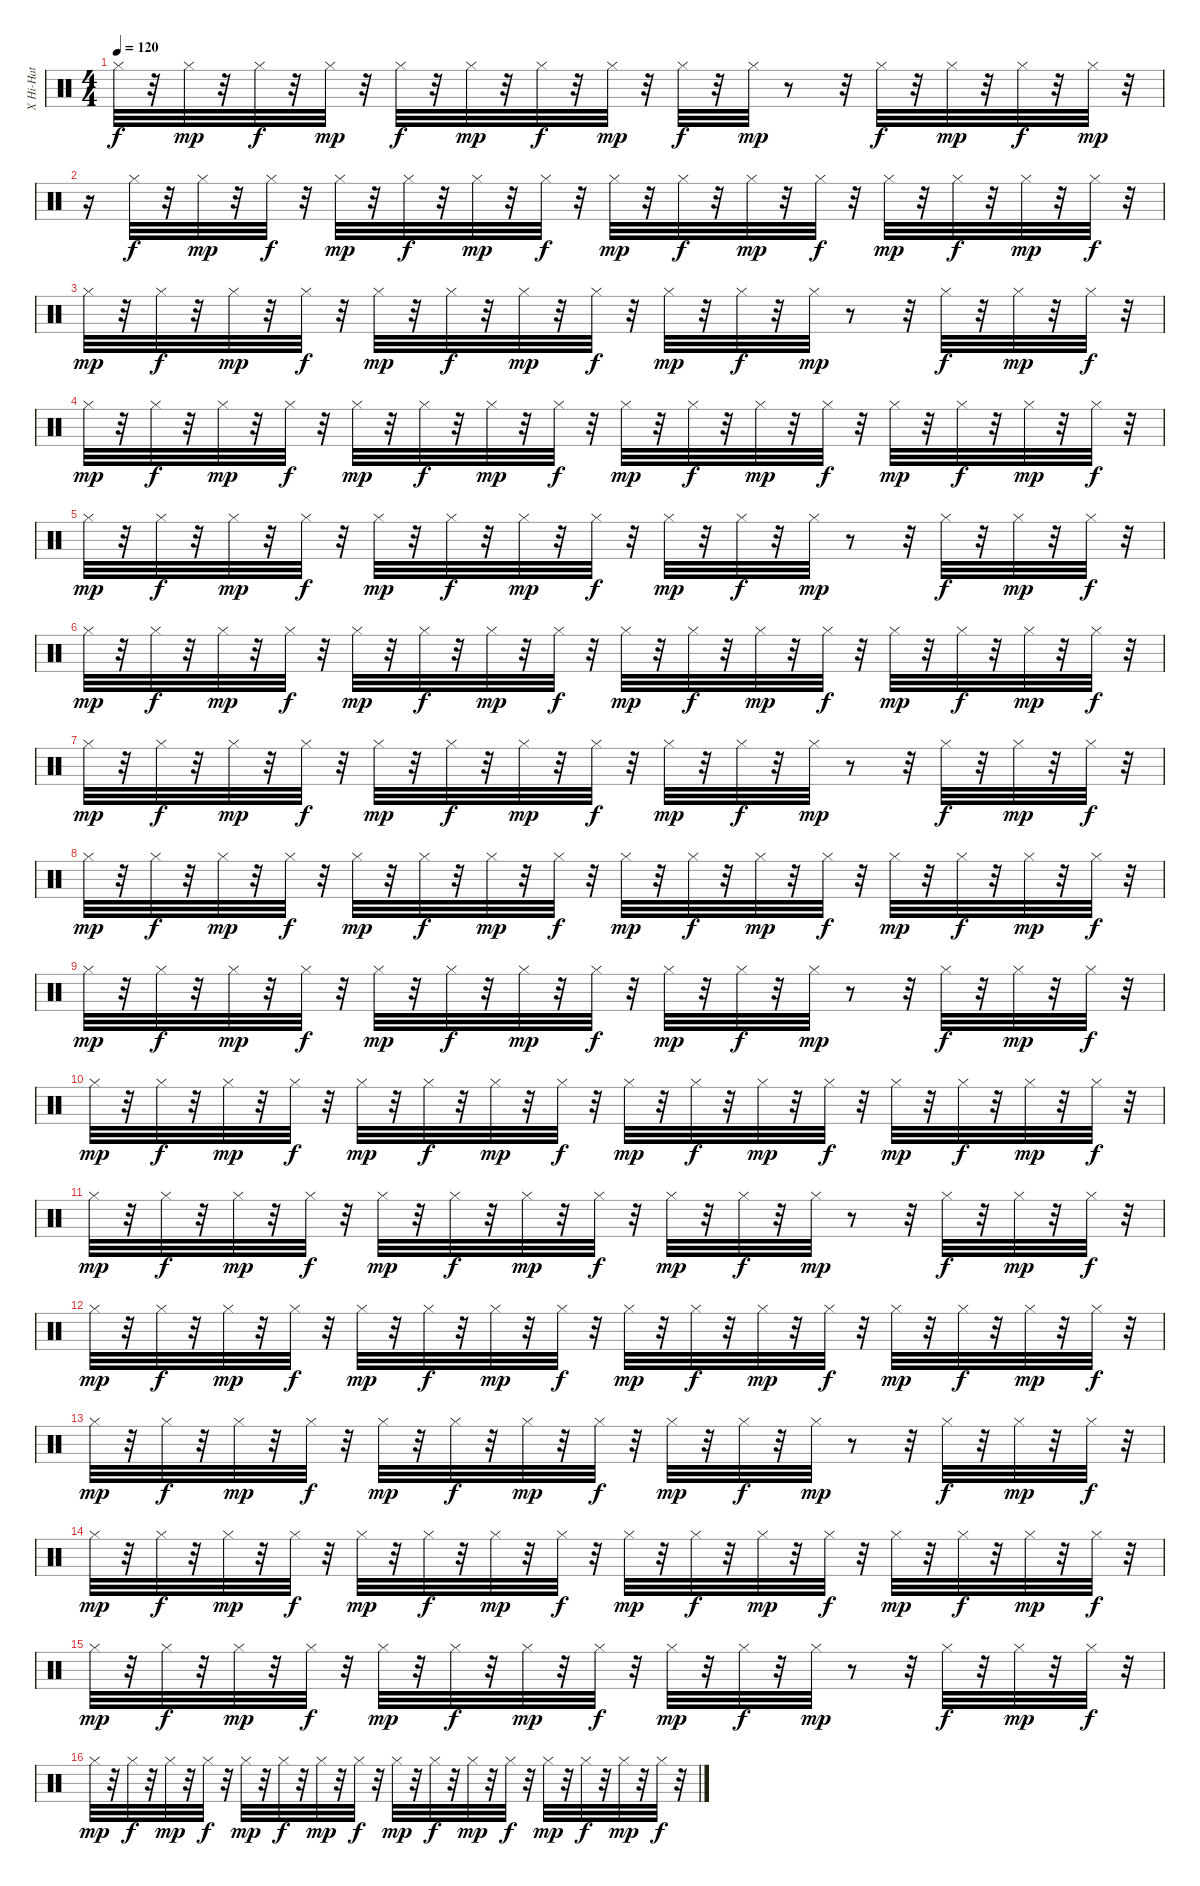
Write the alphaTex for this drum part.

\track ("X Hi-Hat            " "X Hi-Hat  ") {instrument percussion}
\staff {score}
\articulation defaults
\ts (4 4)
\tempo 120
\clef neutral
\ks c "Hi-Hat (closed)".32{dy f}
r.32 "Hi-Hat (closed)".32{dy mp} r.32 "Hi-Hat (closed)".32{dy f} r.32 "Hi-Hat (closed)".32{dy mp} r.32 "Hi-Hat (closed)".32{dy f} r.32 "Hi-Hat (closed)".32{dy mp} r.32 "Hi-Hat (closed)".32{dy f} r.32 "Hi-Hat (closed)".32{dy mp} r.32 "Hi-Hat (closed)".32{dy f} r.32 "Hi-Hat (closed)".32{dy mp} r.8 r.32 "Hi-Hat (closed)".32{dy f} r.32 "Hi-Hat (closed)".32{dy mp} r.32 "Hi-Hat (closed)".32{dy f} r.32 "Hi-Hat (closed)".32{dy mp} r.32 |
r.16 "Hi-Hat (closed)".32{dy f} r.32 "Hi-Hat (closed)".32{dy mp} r.32 "Hi-Hat (closed)".32{dy f} r.32 "Hi-Hat (closed)".32{dy mp} r.32 "Hi-Hat (closed)".32{dy f} r.32 "Hi-Hat (closed)".32{dy mp} r.32 "Hi-Hat (closed)".32{dy f} r.32 "Hi-Hat (closed)".32{dy mp} r.32 "Hi-Hat (closed)".32{dy f} r.32 "Hi-Hat (closed)".32{dy mp} r.32 "Hi-Hat (closed)".32{dy f} r.32 "Hi-Hat (closed)".32{dy mp} r.32 "Hi-Hat (closed)".32{dy f} r.32 "Hi-Hat (closed)".32{dy mp} r.32 "Hi-Hat (closed)".32{dy f} r.32 |
"Hi-Hat (closed)".32{dy mp} r.32 "Hi-Hat (closed)".32{dy f} r.32 "Hi-Hat (closed)".32{dy mp} r.32 "Hi-Hat (closed)".32{dy f} r.32 "Hi-Hat (closed)".32{dy mp} r.32 "Hi-Hat (closed)".32{dy f} r.32 "Hi-Hat (closed)".32{dy mp} r.32 "Hi-Hat (closed)".32{dy f} r.32 "Hi-Hat (closed)".32{dy mp} r.32 "Hi-Hat (closed)".32{dy f} r.32 "Hi-Hat (closed)".32{dy mp} r.8 r.32 "Hi-Hat (closed)".32{dy f} r.32 "Hi-Hat (closed)".32{dy mp} r.32 "Hi-Hat (closed)".32{dy f} r.32 |
"Hi-Hat (closed)".32{dy mp} r.32 "Hi-Hat (closed)".32{dy f} r.32 "Hi-Hat (closed)".32{dy mp} r.32 "Hi-Hat (closed)".32{dy f} r.32 "Hi-Hat (closed)".32{dy mp} r.32 "Hi-Hat (closed)".32{dy f} r.32 "Hi-Hat (closed)".32{dy mp} r.32 "Hi-Hat (closed)".32{dy f} r.32 "Hi-Hat (closed)".32{dy mp} r.32 "Hi-Hat (closed)".32{dy f} r.32 "Hi-Hat (closed)".32{dy mp} r.32 "Hi-Hat (closed)".32{dy f} r.32 "Hi-Hat (closed)".32{dy mp} r.32 "Hi-Hat (closed)".32{dy f} r.32 "Hi-Hat (closed)".32{dy mp} r.32 "Hi-Hat (closed)".32{dy f} r.32 |
"Hi-Hat (closed)".32{dy mp} r.32 "Hi-Hat (closed)".32{dy f} r.32 "Hi-Hat (closed)".32{dy mp} r.32 "Hi-Hat (closed)".32{dy f} r.32 "Hi-Hat (closed)".32{dy mp} r.32 "Hi-Hat (closed)".32{dy f} r.32 "Hi-Hat (closed)".32{dy mp} r.32 "Hi-Hat (closed)".32{dy f} r.32 "Hi-Hat (closed)".32{dy mp} r.32 "Hi-Hat (closed)".32{dy f} r.32 "Hi-Hat (closed)".32{dy mp} r.8 r.32 "Hi-Hat (closed)".32{dy f} r.32 "Hi-Hat (closed)".32{dy mp} r.32 "Hi-Hat (closed)".32{dy f} r.32 |
"Hi-Hat (closed)".32{dy mp} r.32 "Hi-Hat (closed)".32{dy f} r.32 "Hi-Hat (closed)".32{dy mp} r.32 "Hi-Hat (closed)".32{dy f} r.32 "Hi-Hat (closed)".32{dy mp} r.32 "Hi-Hat (closed)".32{dy f} r.32 "Hi-Hat (closed)".32{dy mp} r.32 "Hi-Hat (closed)".32{dy f} r.32 "Hi-Hat (closed)".32{dy mp} r.32 "Hi-Hat (closed)".32{dy f} r.32 "Hi-Hat (closed)".32{dy mp} r.32 "Hi-Hat (closed)".32{dy f} r.32 "Hi-Hat (closed)".32{dy mp} r.32 "Hi-Hat (closed)".32{dy f} r.32 "Hi-Hat (closed)".32{dy mp} r.32 "Hi-Hat (closed)".32{dy f} r.32 |
"Hi-Hat (closed)".32{dy mp} r.32 "Hi-Hat (closed)".32{dy f} r.32 "Hi-Hat (closed)".32{dy mp} r.32 "Hi-Hat (closed)".32{dy f} r.32 "Hi-Hat (closed)".32{dy mp} r.32 "Hi-Hat (closed)".32{dy f} r.32 "Hi-Hat (closed)".32{dy mp} r.32 "Hi-Hat (closed)".32{dy f} r.32 "Hi-Hat (closed)".32{dy mp} r.32 "Hi-Hat (closed)".32{dy f} r.32 "Hi-Hat (closed)".32{dy mp} r.8 r.32 "Hi-Hat (closed)".32{dy f} r.32 "Hi-Hat (closed)".32{dy mp} r.32 "Hi-Hat (closed)".32{dy f} r.32 |
"Hi-Hat (closed)".32{dy mp} r.32 "Hi-Hat (closed)".32{dy f} r.32 "Hi-Hat (closed)".32{dy mp} r.32 "Hi-Hat (closed)".32{dy f} r.32 "Hi-Hat (closed)".32{dy mp} r.32 "Hi-Hat (closed)".32{dy f} r.32 "Hi-Hat (closed)".32{dy mp} r.32 "Hi-Hat (closed)".32{dy f} r.32 "Hi-Hat (closed)".32{dy mp} r.32 "Hi-Hat (closed)".32{dy f} r.32 "Hi-Hat (closed)".32{dy mp} r.32 "Hi-Hat (closed)".32{dy f} r.32 "Hi-Hat (closed)".32{dy mp} r.32 "Hi-Hat (closed)".32{dy f} r.32 "Hi-Hat (closed)".32{dy mp} r.32 "Hi-Hat (closed)".32{dy f} r.32 |
"Hi-Hat (closed)".32{dy mp} r.32 "Hi-Hat (closed)".32{dy f} r.32 "Hi-Hat (closed)".32{dy mp} r.32 "Hi-Hat (closed)".32{dy f} r.32 "Hi-Hat (closed)".32{dy mp} r.32 "Hi-Hat (closed)".32{dy f} r.32 "Hi-Hat (closed)".32{dy mp} r.32 "Hi-Hat (closed)".32{dy f} r.32 "Hi-Hat (closed)".32{dy mp} r.32 "Hi-Hat (closed)".32{dy f} r.32 "Hi-Hat (closed)".32{dy mp} r.8 r.32 "Hi-Hat (closed)".32{dy f} r.32 "Hi-Hat (closed)".32{dy mp} r.32 "Hi-Hat (closed)".32{dy f} r.32 |
"Hi-Hat (closed)".32{dy mp} r.32 "Hi-Hat (closed)".32{dy f} r.32 "Hi-Hat (closed)".32{dy mp} r.32 "Hi-Hat (closed)".32{dy f} r.32 "Hi-Hat (closed)".32{dy mp} r.32 "Hi-Hat (closed)".32{dy f} r.32 "Hi-Hat (closed)".32{dy mp} r.32 "Hi-Hat (closed)".32{dy f} r.32 "Hi-Hat (closed)".32{dy mp} r.32 "Hi-Hat (closed)".32{dy f} r.32 "Hi-Hat (closed)".32{dy mp} r.32 "Hi-Hat (closed)".32{dy f} r.32 "Hi-Hat (closed)".32{dy mp} r.32 "Hi-Hat (closed)".32{dy f} r.32 "Hi-Hat (closed)".32{dy mp} r.32 "Hi-Hat (closed)".32{dy f} r.32 |
"Hi-Hat (closed)".32{dy mp} r.32 "Hi-Hat (closed)".32{dy f} r.32 "Hi-Hat (closed)".32{dy mp} r.32 "Hi-Hat (closed)".32{dy f} r.32 "Hi-Hat (closed)".32{dy mp} r.32 "Hi-Hat (closed)".32{dy f} r.32 "Hi-Hat (closed)".32{dy mp} r.32 "Hi-Hat (closed)".32{dy f} r.32 "Hi-Hat (closed)".32{dy mp} r.32 "Hi-Hat (closed)".32{dy f} r.32 "Hi-Hat (closed)".32{dy mp} r.8 r.32 "Hi-Hat (closed)".32{dy f} r.32 "Hi-Hat (closed)".32{dy mp} r.32 "Hi-Hat (closed)".32{dy f} r.32 |
"Hi-Hat (closed)".32{dy mp} r.32 "Hi-Hat (closed)".32{dy f} r.32 "Hi-Hat (closed)".32{dy mp} r.32 "Hi-Hat (closed)".32{dy f} r.32 "Hi-Hat (closed)".32{dy mp} r.32 "Hi-Hat (closed)".32{dy f} r.32 "Hi-Hat (closed)".32{dy mp} r.32 "Hi-Hat (closed)".32{dy f} r.32 "Hi-Hat (closed)".32{dy mp} r.32 "Hi-Hat (closed)".32{dy f} r.32 "Hi-Hat (closed)".32{dy mp} r.32 "Hi-Hat (closed)".32{dy f} r.32 "Hi-Hat (closed)".32{dy mp} r.32 "Hi-Hat (closed)".32{dy f} r.32 "Hi-Hat (closed)".32{dy mp} r.32 "Hi-Hat (closed)".32{dy f} r.32 |
"Hi-Hat (closed)".32{dy mp} r.32 "Hi-Hat (closed)".32{dy f} r.32 "Hi-Hat (closed)".32{dy mp} r.32 "Hi-Hat (closed)".32{dy f} r.32 "Hi-Hat (closed)".32{dy mp} r.32 "Hi-Hat (closed)".32{dy f} r.32 "Hi-Hat (closed)".32{dy mp} r.32 "Hi-Hat (closed)".32{dy f} r.32 "Hi-Hat (closed)".32{dy mp} r.32 "Hi-Hat (closed)".32{dy f} r.32 "Hi-Hat (closed)".32{dy mp} r.8 r.32 "Hi-Hat (closed)".32{dy f} r.32 "Hi-Hat (closed)".32{dy mp} r.32 "Hi-Hat (closed)".32{dy f} r.32 |
"Hi-Hat (closed)".32{dy mp} r.32 "Hi-Hat (closed)".32{dy f} r.32 "Hi-Hat (closed)".32{dy mp} r.32 "Hi-Hat (closed)".32{dy f} r.32 "Hi-Hat (closed)".32{dy mp} r.32 "Hi-Hat (closed)".32{dy f} r.32 "Hi-Hat (closed)".32{dy mp} r.32 "Hi-Hat (closed)".32{dy f} r.32 "Hi-Hat (closed)".32{dy mp} r.32 "Hi-Hat (closed)".32{dy f} r.32 "Hi-Hat (closed)".32{dy mp} r.32 "Hi-Hat (closed)".32{dy f} r.32 "Hi-Hat (closed)".32{dy mp} r.32 "Hi-Hat (closed)".32{dy f} r.32 "Hi-Hat (closed)".32{dy mp} r.32 "Hi-Hat (closed)".32{dy f} r.32 |
"Hi-Hat (closed)".32{dy mp} r.32 "Hi-Hat (closed)".32{dy f} r.32 "Hi-Hat (closed)".32{dy mp} r.32 "Hi-Hat (closed)".32{dy f} r.32 "Hi-Hat (closed)".32{dy mp} r.32 "Hi-Hat (closed)".32{dy f} r.32 "Hi-Hat (closed)".32{dy mp} r.32 "Hi-Hat (closed)".32{dy f} r.32 "Hi-Hat (closed)".32{dy mp} r.32 "Hi-Hat (closed)".32{dy f} r.32 "Hi-Hat (closed)".32{dy mp} r.8 r.32 "Hi-Hat (closed)".32{dy f} r.32 "Hi-Hat (closed)".32{dy mp} r.32 "Hi-Hat (closed)".32{dy f} r.32 |
"Hi-Hat (closed)".32{dy mp} r.32 "Hi-Hat (closed)".32{dy f} r.32 "Hi-Hat (closed)".32{dy mp} r.32 "Hi-Hat (closed)".32{dy f} r.32 "Hi-Hat (closed)".32{dy mp} r.32 "Hi-Hat (closed)".32{dy f} r.32 "Hi-Hat (closed)".32{dy mp} r.32 "Hi-Hat (closed)".32{dy f} r.32 "Hi-Hat (closed)".32{dy mp} r.32 "Hi-Hat (closed)".32{dy f} r.32 "Hi-Hat (closed)".32{dy mp} r.32 "Hi-Hat (closed)".32{dy f} r.32 "Hi-Hat (closed)".32{dy mp} r.32 "Hi-Hat (closed)".32{dy f} r.32 "Hi-Hat (closed)".32{dy mp} r.32 "Hi-Hat (closed)".32{dy f} r.32
